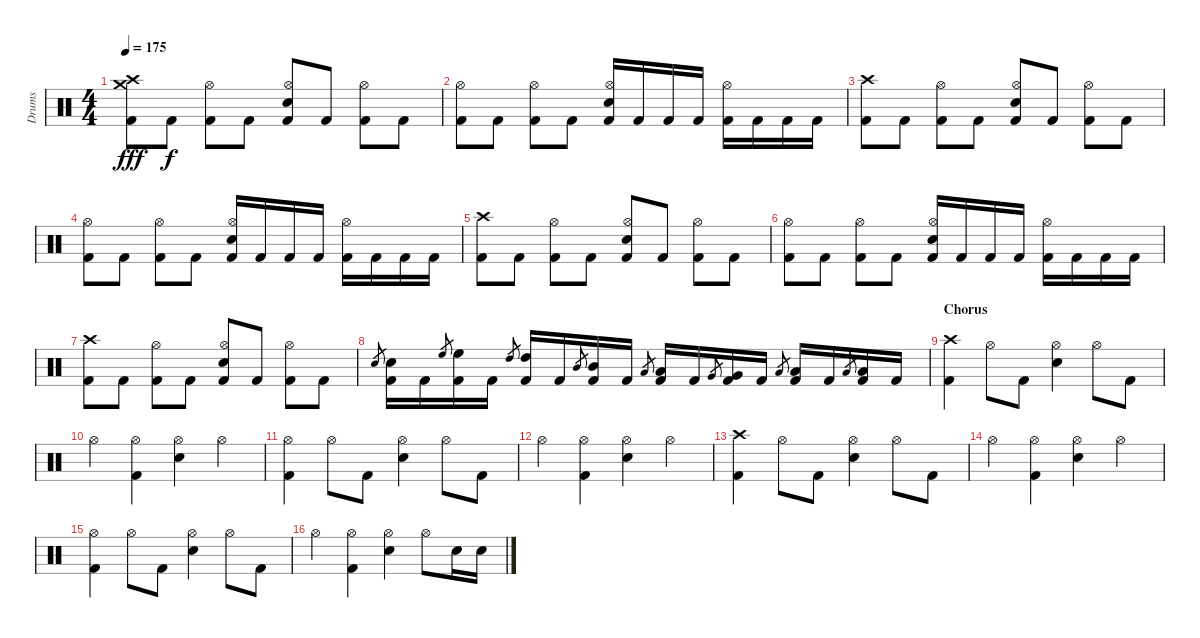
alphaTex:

\track ("Drums" "Drums") {instrument percussion}
\staff {score}
\articulation defaults
\ts (4 4)
\tempo 175
\clef neutral
\ks c
("Crash high (hit)" "Crash medium (hit)" "Kick (hit) 2").8{dy fff} "Kick (hit) 2".8{dy f} ("Hi-Hat (open)" "Kick (hit) 2").8 "Kick (hit) 2".8 ("Hi-Hat (open)" "Electric Snare (hit)" "Kick (hit) 2").8 "Kick (hit) 2".8 ("Hi-Hat (open)" "Kick (hit) 2").8 "Kick (hit) 2".8 |
("Hi-Hat (open)" "Kick (hit) 2").8 "Kick (hit) 2".8 ("Hi-Hat (open)" "Kick (hit) 2").8 "Kick (hit) 2".8 ("Hi-Hat (open)" "Electric Snare (hit)" "Kick (hit) 2").16 "Kick (hit) 2".16 "Kick (hit) 2".16 "Kick (hit) 2".16 ("Hi-Hat (open)" "Kick (hit) 2").16 "Kick (hit) 2".16 "Kick (hit) 2".16 "Kick (hit) 2".16 |
("Crash high (hit)" "Kick (hit) 2").8 "Kick (hit) 2".8 ("Hi-Hat (open)" "Kick (hit) 2").8 "Kick (hit) 2".8 ("Hi-Hat (open)" "Electric Snare (hit)" "Kick (hit) 2").8 "Kick (hit) 2".8 ("Hi-Hat (open)" "Kick (hit) 2").8 "Kick (hit) 2".8 |
("Hi-Hat (open)" "Kick (hit) 2").8 "Kick (hit) 2".8 ("Hi-Hat (open)" "Kick (hit) 2").8 "Kick (hit) 2".8 ("Hi-Hat (open)" "Electric Snare (hit)" "Kick (hit) 2").16 "Kick (hit) 2".16 "Kick (hit) 2".16 "Kick (hit) 2".16 ("Hi-Hat (open)" "Kick (hit) 2").16 "Kick (hit) 2".16 "Kick (hit) 2".16 "Kick (hit) 2".16 |
\section ("" "")
("Crash high (hit)" "Kick (hit) 2").8 "Kick (hit) 2".8 ("Hi-Hat (open)" "Kick (hit) 2").8 "Kick (hit) 2".8 ("Hi-Hat (open)" "Electric Snare (hit)" "Kick (hit) 2").8 "Kick (hit) 2".8 ("Hi-Hat (open)" "Kick (hit) 2").8 "Kick (hit) 2".8 |
("Hi-Hat (open)" "Kick (hit) 2").8 "Kick (hit) 2".8 ("Hi-Hat (open)" "Kick (hit) 2").8 "Kick (hit) 2".8 ("Hi-Hat (open)" "Electric Snare (hit)" "Kick (hit) 2").16 "Kick (hit) 2".16 "Kick (hit) 2".16 "Kick (hit) 2".16 ("Hi-Hat (open)" "Kick (hit) 2").16 "Kick (hit) 2".16 "Kick (hit) 2".16 "Kick (hit) 2".16 |
("Crash high (hit)" "Kick (hit) 2").8 "Kick (hit) 2".8 ("Hi-Hat (open)" "Kick (hit) 2").8 "Kick (hit) 2".8 ("Hi-Hat (open)" "Electric Snare (hit)" "Kick (hit) 2").8 "Kick (hit) 2".8 ("Hi-Hat (open)" "Kick (hit) 2").8 "Kick (hit) 2".8 |
"Electric Snare (hit)".8{gr} ("Electric Snare (hit)" "Kick (hit) 2").16 "Kick (hit) 2".16 "High Floor Tom (hit)".8{gr} ("High Floor Tom (hit)" "Kick (hit) 2").16 "Kick (hit) 2".16 "High Tom (hit)".8{gr} ("High Tom (hit)" "Kick (hit) 2").16 "Kick (hit) 2".16 "Mid Tom (hit)".8{gr} ("Mid Tom (hit)" "Kick (hit) 2").16 "Kick (hit) 2".16 "Low Tom (hit)".8{gr} ("Low Tom (hit)" "Kick (hit) 2").16 "Kick (hit) 2".16 "Very Low Tom (hit)".8{gr} ("Very Low Tom (hit)" "Kick (hit) 2").16 "Kick (hit) 2".16 "Low Floor Tom (hit)".8{gr} ("Low Floor Tom (hit)" "Kick (hit) 2").16 "Kick (hit) 2".16 "Low Floor Tom (hit)".8{gr} ("Low Floor Tom (hit)" "Kick (hit) 2").16 "Kick (hit) 2".16 |
\section ("" "Chorus")
("Crash high (hit)" "Kick (hit) 2").4 "Hi-Hat (open)".8 "Kick (hit) 2".8 ("Hi-Hat (open)" "Electric Snare (hit)").4 "Hi-Hat (open)".8 "Kick (hit) 2".8 |
"Hi-Hat (open)".4 ("Hi-Hat (open)" "Kick (hit) 2").4 ("Hi-Hat (open)" "Electric Snare (hit)").4 "Hi-Hat (open)".4 |
("Hi-Hat (open)" "Kick (hit) 2").4 "Hi-Hat (open)".8 "Kick (hit) 2".8 ("Hi-Hat (open)" "Electric Snare (hit)").4 "Hi-Hat (open)".8 "Kick (hit) 2".8 |
"Hi-Hat (open)".4 ("Hi-Hat (open)" "Kick (hit) 2").4 ("Hi-Hat (open)" "Electric Snare (hit)").4 "Hi-Hat (open)".4 |
("Crash high (hit)" "Kick (hit) 2").4 "Hi-Hat (open)".8 "Kick (hit) 2".8 ("Hi-Hat (open)" "Electric Snare (hit)").4 "Hi-Hat (open)".8 "Kick (hit) 2".8 |
"Hi-Hat (open)".4 ("Hi-Hat (open)" "Kick (hit) 2").4 ("Hi-Hat (open)" "Electric Snare (hit)").4 "Hi-Hat (open)".4 |
("Hi-Hat (open)" "Kick (hit) 2").4 "Hi-Hat (open)".8 "Kick (hit) 2".8 ("Hi-Hat (open)" "Electric Snare (hit)").4 "Hi-Hat (open)".8 "Kick (hit) 2".8 |
"Hi-Hat (open)".4 ("Hi-Hat (open)" "Kick (hit) 2").4 ("Hi-Hat (open)" "Electric Snare (hit)").4 "Hi-Hat (open)".8 "Electric Snare (hit)".16 "Electric Snare (hit)".16
